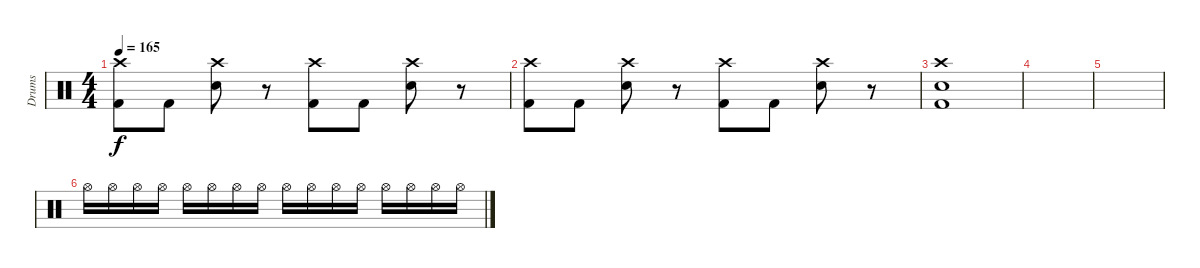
\track ("Drums" "Drums") {instrument percussion}
\staff {score}
\articulation defaults
\ts (4 4)
\tempo 165
\clef neutral
\ks c
("Crash high (hit)" "Kick (hit) 2").8{dy f} "Kick (hit) 2".8 ("Crash high (hit)" "Electric Snare (hit)").8 r.8 ("Crash high (hit)" "Kick (hit) 2").8 "Kick (hit) 2".8 ("Crash high (hit)" "Electric Snare (hit)").8 r.8 |
("Crash high (hit)" "Kick (hit) 2").8 "Kick (hit) 2".8 ("Crash high (hit)" "Electric Snare (hit)").8 r.8 ("Crash high (hit)" "Kick (hit) 2").8 "Kick (hit) 2".8 ("Crash high (hit)" "Electric Snare (hit)").8 r.8 |
("Crash high (hit)" "Electric Snare (hit)" "Kick (hit) 2").1 |
|
|
"Hi-Hat (open)".16 "Hi-Hat (open)".16 "Hi-Hat (open)".16 "Hi-Hat (open)".16 "Hi-Hat (open)".16 "Hi-Hat (open)".16 "Hi-Hat (open)".16 "Hi-Hat (open)".16 "Hi-Hat (open)".16 "Hi-Hat (open)".16 "Hi-Hat (open)".16 "Hi-Hat (open)".16 "Hi-Hat (open)".16 "Hi-Hat (open)".16 "Hi-Hat (open)".16 "Hi-Hat (open)".16
